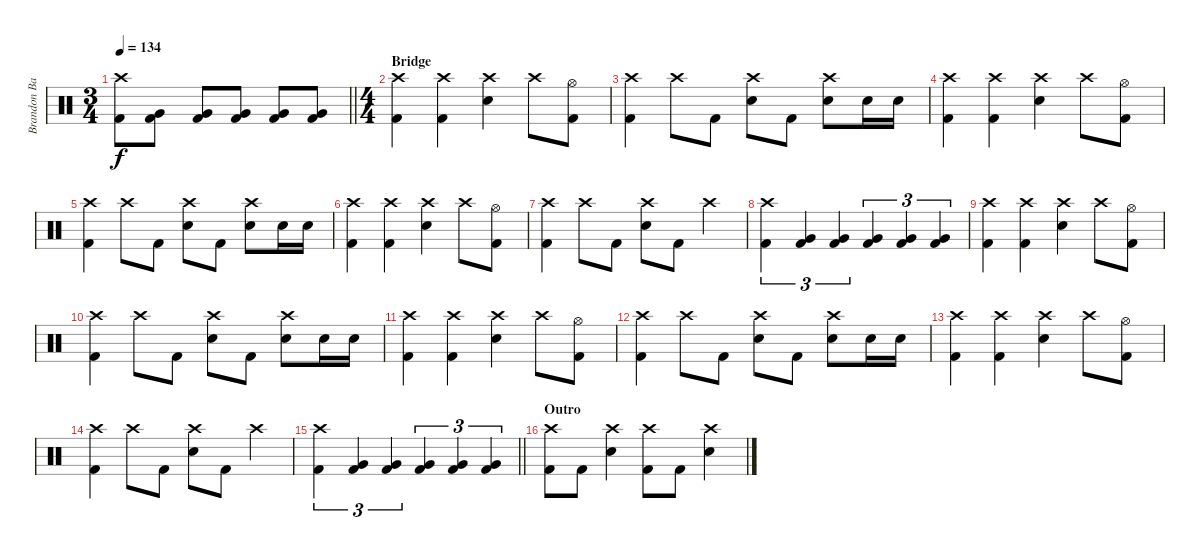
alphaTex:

\track ("Brandon Barnes - Drums" "Brandon Ba") {instrument percussion}
\staff {score}
\articulation defaults
\ts (3 4)
\tempo 134
\clef neutral
\barLineRight lightlight
\ks c
("Kick (hit) 2" "Crash high (hit)").8{dy f} ("Very Low Tom (hit)" "Kick (hit) 2").8 ("Very Low Tom (hit)" "Kick (hit) 2").8 ("Very Low Tom (hit)" "Kick (hit) 2").8 ("Very Low Tom (hit)" "Kick (hit) 2").8 ("Very Low Tom (hit)" "Kick (hit) 2").8 |
\ts (4 4)
\section ("" "Bridge")
("Kick (hit) 2" "Crash high (hit)").4 ("Kick (hit) 2" "Crash high (hit)").4 ("Snare (hit) 2" "Crash high (hit)").4 "Crash high (hit)".8 ("Kick (hit) 2" "Hi-Hat (open)").8 |
("Kick (hit) 2" "Crash high (hit)").4 "Crash high (hit)".8 "Kick (hit) 2".8 ("Snare (hit) 2" "Crash high (hit)").8 "Kick (hit) 2".8 ("Snare (hit) 2" "Crash high (hit)").8 "Snare (hit) 2".16 "Snare (hit) 2".16 |
("Kick (hit) 2" "Crash high (hit)").4 ("Kick (hit) 2" "Crash high (hit)").4 ("Snare (hit) 2" "Crash high (hit)").4 "Crash high (hit)".8 ("Kick (hit) 2" "Hi-Hat (open)").8 |
("Kick (hit) 2" "Crash high (hit)").4 "Crash high (hit)".8 "Kick (hit) 2".8 ("Snare (hit) 2" "Crash high (hit)").8 "Kick (hit) 2".8 ("Snare (hit) 2" "Crash high (hit)").8 "Snare (hit) 2".16 "Snare (hit) 2".16 |
("Kick (hit) 2" "Crash high (hit)").4 ("Kick (hit) 2" "Crash high (hit)").4 ("Snare (hit) 2" "Crash high (hit)").4 "Crash high (hit)".8 ("Kick (hit) 2" "Hi-Hat (open)").8 |
("Kick (hit) 2" "Crash high (hit)").4 "Crash high (hit)".8 "Kick (hit) 2".8 ("Snare (hit) 2" "Crash high (hit)").8 "Kick (hit) 2".8 "Crash high (hit)".4 |
("Kick (hit) 2" "Crash high (hit)").4{tu (3 2)} ("Very Low Tom (hit)" "Kick (hit) 2").4{tu (3 2)} ("Very Low Tom (hit)" "Kick (hit) 2").4{tu (3 2)} ("Very Low Tom (hit)" "Kick (hit) 2").4{tu (3 2)} ("Very Low Tom (hit)" "Kick (hit) 2").4{tu (3 2)} ("Very Low Tom (hit)" "Kick (hit) 2").4{tu (3 2)} |
("Kick (hit) 2" "Crash high (hit)").4 ("Kick (hit) 2" "Crash high (hit)").4 ("Snare (hit) 2" "Crash high (hit)").4 "Crash high (hit)".8 ("Kick (hit) 2" "Hi-Hat (open)").8 |
("Kick (hit) 2" "Crash high (hit)").4 "Crash high (hit)".8 "Kick (hit) 2".8 ("Snare (hit) 2" "Crash high (hit)").8 "Kick (hit) 2".8 ("Snare (hit) 2" "Crash high (hit)").8 "Snare (hit) 2".16 "Snare (hit) 2".16 |
("Kick (hit) 2" "Crash high (hit)").4 ("Kick (hit) 2" "Crash high (hit)").4 ("Snare (hit) 2" "Crash high (hit)").4 "Crash high (hit)".8 ("Kick (hit) 2" "Hi-Hat (open)").8 |
("Kick (hit) 2" "Crash high (hit)").4 "Crash high (hit)".8 "Kick (hit) 2".8 ("Snare (hit) 2" "Crash high (hit)").8 "Kick (hit) 2".8 ("Snare (hit) 2" "Crash high (hit)").8 "Snare (hit) 2".16 "Snare (hit) 2".16 |
("Kick (hit) 2" "Crash high (hit)").4 ("Kick (hit) 2" "Crash high (hit)").4 ("Snare (hit) 2" "Crash high (hit)").4 "Crash high (hit)".8 ("Kick (hit) 2" "Hi-Hat (open)").8 |
("Kick (hit) 2" "Crash high (hit)").4 "Crash high (hit)".8 "Kick (hit) 2".8 ("Snare (hit) 2" "Crash high (hit)").8 "Kick (hit) 2".8 "Crash high (hit)".4 |
\barLineRight lightlight
("Crash high (hit)" "Kick (hit) 2").4{tu (3 2)} ("Very Low Tom (hit)" "Kick (hit) 2").4{tu (3 2)} ("Very Low Tom (hit)" "Kick (hit) 2").4{tu (3 2)} ("Very Low Tom (hit)" "Kick (hit) 2").4{tu (3 2)} ("Very Low Tom (hit)" "Kick (hit) 2").4{tu (3 2)} ("Very Low Tom (hit)" "Kick (hit) 2").4{tu (3 2)} |
\section ("" "Outro")
("Crash high (hit)" "Kick (hit) 2").8 "Kick (hit) 2".8 ("Snare (hit) 2" "Crash high (hit)").4 ("Crash high (hit)" "Kick (hit) 2").8 "Kick (hit) 2".8 ("Snare (hit) 2" "Crash high (hit)").4
